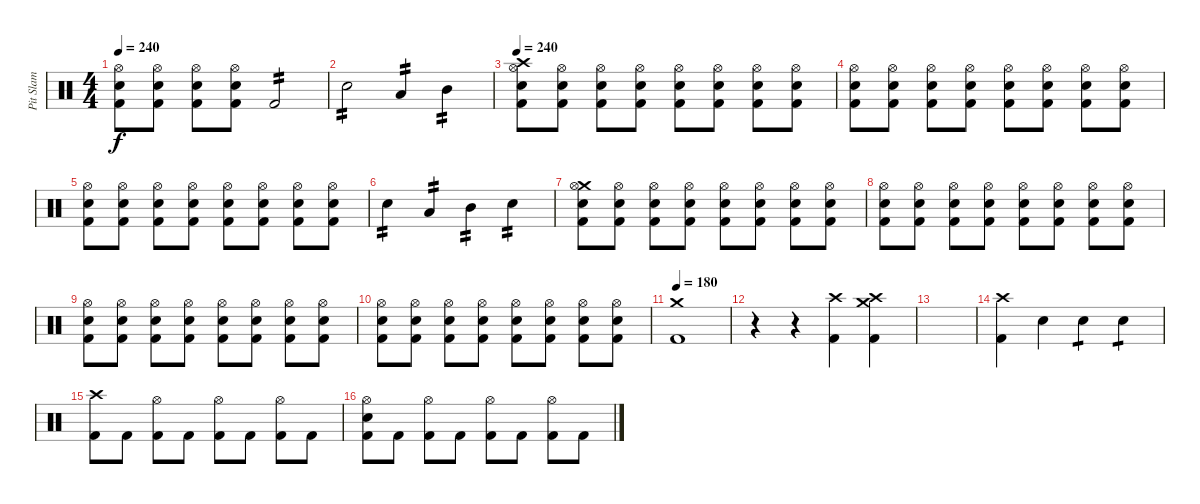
\track ("Pit Slam" "Pit Slam") {instrument percussion}
\staff {score}
\articulation defaults
\ts (4 4)
\tempo 240
\clef neutral
\ks c
("Hi-Hat (open)" "Electric Snare (hit)" "Kick (hit) 2").8{dy f} ("Hi-Hat (open)" "Electric Snare (hit)" "Kick (hit) 2").8 ("Hi-Hat (open)" "Electric Snare (hit)" "Kick (hit) 2").8 ("Hi-Hat (open)" "Electric Snare (hit)" "Kick (hit) 2").8 "Kick (hit) 2".2{tp 2} |
"Electric Snare (hit)".2{tp 2} "Low Tom (hit)".4{tp 2} "Mid Tom (hit)".4{tp 2} |
\tempo 240
("Crash high (hit)" "Hi-Hat (open)" "Electric Snare (hit)" "Kick (hit) 2").8 ("Hi-Hat (open)" "Electric Snare (hit)" "Kick (hit) 2").8 ("Hi-Hat (open)" "Electric Snare (hit)" "Kick (hit) 2").8 ("Hi-Hat (open)" "Electric Snare (hit)" "Kick (hit) 2").8 ("Hi-Hat (open)" "Electric Snare (hit)" "Kick (hit) 2").8 ("Hi-Hat (open)" "Electric Snare (hit)" "Kick (hit) 2").8 ("Hi-Hat (open)" "Electric Snare (hit)" "Kick (hit) 2").8 ("Hi-Hat (open)" "Electric Snare (hit)" "Kick (hit) 2").8 |
("Hi-Hat (open)" "Electric Snare (hit)" "Kick (hit) 2").8 ("Hi-Hat (open)" "Electric Snare (hit)" "Kick (hit) 2").8 ("Hi-Hat (open)" "Electric Snare (hit)" "Kick (hit) 2").8 ("Hi-Hat (open)" "Electric Snare (hit)" "Kick (hit) 2").8 ("Hi-Hat (open)" "Electric Snare (hit)" "Kick (hit) 2").8 ("Hi-Hat (open)" "Electric Snare (hit)" "Kick (hit) 2").8 ("Hi-Hat (open)" "Electric Snare (hit)" "Kick (hit) 2").8 ("Hi-Hat (open)" "Electric Snare (hit)" "Kick (hit) 2").8 |
("Hi-Hat (open)" "Electric Snare (hit)" "Kick (hit) 2").8 ("Hi-Hat (open)" "Electric Snare (hit)" "Kick (hit) 2").8 ("Hi-Hat (open)" "Electric Snare (hit)" "Kick (hit) 2").8 ("Hi-Hat (open)" "Electric Snare (hit)" "Kick (hit) 2").8 ("Hi-Hat (open)" "Electric Snare (hit)" "Kick (hit) 2").8 ("Hi-Hat (open)" "Electric Snare (hit)" "Kick (hit) 2").8 ("Hi-Hat (open)" "Electric Snare (hit)" "Kick (hit) 2").8 ("Hi-Hat (open)" "Electric Snare (hit)" "Kick (hit) 2").8 |
"Electric Snare (hit)".4{tp 2} "Low Tom (hit)".4{tp 2} "Mid Tom (hit)".4{tp 2} "Electric Snare (hit)".4{tp 2} |
("Crash medium (hit)" "Hi-Hat (open)" "Electric Snare (hit)" "Kick (hit) 2").8 ("Hi-Hat (open)" "Electric Snare (hit)" "Kick (hit) 2").8 ("Hi-Hat (open)" "Electric Snare (hit)" "Kick (hit) 2").8 ("Hi-Hat (open)" "Electric Snare (hit)" "Kick (hit) 2").8 ("Hi-Hat (open)" "Electric Snare (hit)" "Kick (hit) 2").8 ("Hi-Hat (open)" "Electric Snare (hit)" "Kick (hit) 2").8 ("Hi-Hat (open)" "Electric Snare (hit)" "Kick (hit) 2").8 ("Hi-Hat (open)" "Electric Snare (hit)" "Kick (hit) 2").8 |
("Hi-Hat (open)" "Electric Snare (hit)" "Kick (hit) 2").8 ("Hi-Hat (open)" "Electric Snare (hit)" "Kick (hit) 2").8 ("Hi-Hat (open)" "Electric Snare (hit)" "Kick (hit) 2").8 ("Hi-Hat (open)" "Electric Snare (hit)" "Kick (hit) 2").8 ("Hi-Hat (open)" "Electric Snare (hit)" "Kick (hit) 2").8 ("Hi-Hat (open)" "Electric Snare (hit)" "Kick (hit) 2").8 ("Hi-Hat (open)" "Electric Snare (hit)" "Kick (hit) 2").8 ("Hi-Hat (open)" "Electric Snare (hit)" "Kick (hit) 2").8 |
("Hi-Hat (open)" "Electric Snare (hit)" "Kick (hit) 2").8 ("Hi-Hat (open)" "Electric Snare (hit)" "Kick (hit) 2").8 ("Hi-Hat (open)" "Electric Snare (hit)" "Kick (hit) 2").8 ("Hi-Hat (open)" "Electric Snare (hit)" "Kick (hit) 2").8 ("Hi-Hat (open)" "Electric Snare (hit)" "Kick (hit) 2").8 ("Hi-Hat (open)" "Electric Snare (hit)" "Kick (hit) 2").8 ("Hi-Hat (open)" "Electric Snare (hit)" "Kick (hit) 2").8 ("Hi-Hat (open)" "Electric Snare (hit)" "Kick (hit) 2").8 |
("Hi-Hat (open)" "Electric Snare (hit)" "Kick (hit) 2").8 ("Hi-Hat (open)" "Electric Snare (hit)" "Kick (hit) 2").8 ("Hi-Hat (open)" "Electric Snare (hit)" "Kick (hit) 2").8 ("Hi-Hat (open)" "Electric Snare (hit)" "Kick (hit) 2").8 ("Hi-Hat (open)" "Electric Snare (hit)" "Kick (hit) 2").8 ("Hi-Hat (open)" "Electric Snare (hit)" "Kick (hit) 2").8 ("Hi-Hat (open)" "Electric Snare (hit)" "Kick (hit) 2").8 ("Hi-Hat (open)" "Electric Snare (hit)" "Kick (hit) 2").8 |
\tempo 180
("Crash medium (hit)" "Kick (hit) 2").1 |
r.4 r.4 ("Crash high (hit)" "Kick (hit) 2").4 ("Crash medium (hit)" "Crash high (hit)" "Kick (hit) 2").4 |
|
("Crash high (hit)" "Kick (hit) 2").4 "Electric Snare (hit)".4 "Electric Snare (hit)".4{tp 1} "Electric Snare (hit)".4{tp 1} |
("Crash high (hit)" "Kick (hit) 2").8 "Kick (hit) 2".8 ("Hi-Hat (open)" "Kick (hit) 2").8 "Kick (hit) 2".8 ("Hi-Hat (open)" "Kick (hit) 2").8 "Kick (hit) 2".8 ("Hi-Hat (open)" "Kick (hit) 2").8 "Kick (hit) 2".8 |
("Hi-Hat (open)" "Electric Snare (hit)" "Kick (hit) 2").8 "Kick (hit) 2".8 ("Hi-Hat (open)" "Kick (hit) 2").8 "Kick (hit) 2".8 ("Hi-Hat (open)" "Kick (hit) 2").8 "Kick (hit) 2".8 ("Hi-Hat (open)" "Kick (hit) 2").8 "Kick (hit) 2".8
